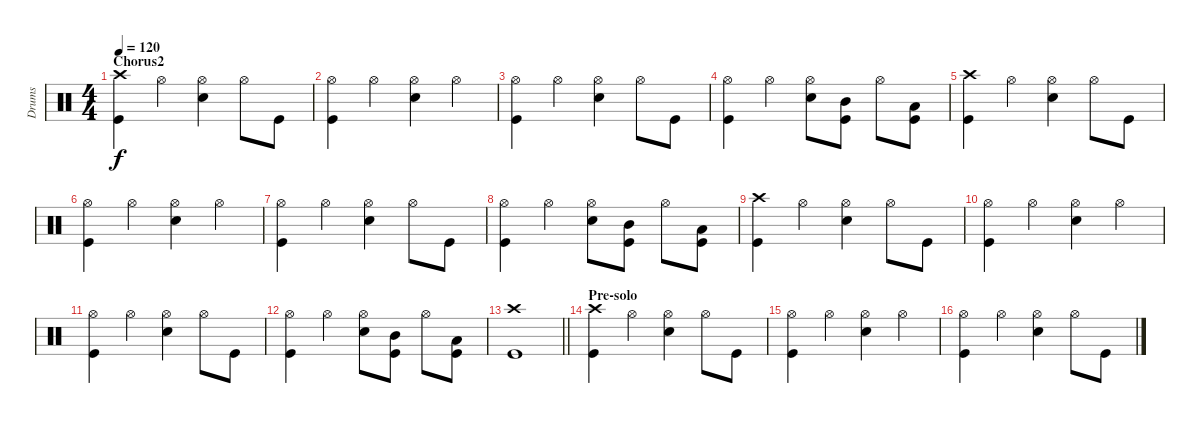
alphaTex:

\track ("Drums" "Drums") {instrument percussion}
\staff {score}
\articulation defaults
\ts (4 4)
\section ("" "Chorus2")
\tempo 120
\clef neutral
\ks c
("Crash high (hit)" "Kick (hit)").4{dy f} "Hi-Hat (open)".4 ("Hi-Hat (open)" "Snare (hit) 2").4 "Hi-Hat (open)".8 "Kick (hit)".8 |
("Hi-Hat (open)" "Kick (hit)").4 "Hi-Hat (open)".4 ("Hi-Hat (open)" "Snare (hit) 2").4 "Hi-Hat (open)".4 |
("Hi-Hat (open)" "Kick (hit)").4 "Hi-Hat (open)".4 ("Hi-Hat (open)" "Snare (hit) 2").4 "Hi-Hat (open)".8 "Kick (hit)".8 |
("Hi-Hat (open)" "Kick (hit)").4 "Hi-Hat (open)".4 ("Hi-Hat (open)" "Snare (hit) 2").8 ("Mid Tom (hit)" "Kick (hit)").8 "Hi-Hat (open)".8 ("Low Tom (hit)" "Kick (hit)").8 |
("Crash high (hit)" "Kick (hit)").4 "Hi-Hat (open)".4 ("Hi-Hat (open)" "Snare (hit) 2").4 "Hi-Hat (open)".8 "Kick (hit)".8 |
("Hi-Hat (open)" "Kick (hit)").4 "Hi-Hat (open)".4 ("Hi-Hat (open)" "Snare (hit) 2").4 "Hi-Hat (open)".4 |
("Hi-Hat (open)" "Kick (hit)").4 "Hi-Hat (open)".4 ("Hi-Hat (open)" "Snare (hit) 2").4 "Hi-Hat (open)".8 "Kick (hit)".8 |
("Hi-Hat (open)" "Kick (hit)").4 "Hi-Hat (open)".4 ("Hi-Hat (open)" "Snare (hit) 2").8 ("Mid Tom (hit)" "Kick (hit)").8 "Hi-Hat (open)".8 ("Low Tom (hit)" "Kick (hit)").8 |
("Crash high (hit)" "Kick (hit)").4 "Hi-Hat (open)".4 ("Hi-Hat (open)" "Snare (hit) 2").4 "Hi-Hat (open)".8 "Kick (hit)".8 |
("Hi-Hat (open)" "Kick (hit)").4 "Hi-Hat (open)".4 ("Hi-Hat (open)" "Snare (hit) 2").4 "Hi-Hat (open)".4 |
("Hi-Hat (open)" "Kick (hit)").4 "Hi-Hat (open)".4 ("Hi-Hat (open)" "Snare (hit) 2").4 "Hi-Hat (open)".8 "Kick (hit)".8 |
("Hi-Hat (open)" "Kick (hit)").4 "Hi-Hat (open)".4 ("Hi-Hat (open)" "Snare (hit) 2").8 ("Mid Tom (hit)" "Kick (hit)").8 "Hi-Hat (open)".8 ("Low Tom (hit)" "Kick (hit)").8 |
\barLineRight lightlight
("Crash high (hit)" "Kick (hit)").1 |
\section ("" "Pre-solo")
("Crash high (hit)" "Kick (hit)").4 "Hi-Hat (open)".4 ("Hi-Hat (open)" "Snare (hit) 2").4 "Hi-Hat (open)".8 "Kick (hit)".8 |
("Hi-Hat (open)" "Kick (hit)").4 "Hi-Hat (open)".4 ("Hi-Hat (open)" "Snare (hit) 2").4 "Hi-Hat (open)".4 |
("Hi-Hat (open)" "Kick (hit)").4 "Hi-Hat (open)".4 ("Hi-Hat (open)" "Snare (hit) 2").4 "Hi-Hat (open)".8 "Kick (hit)".8
